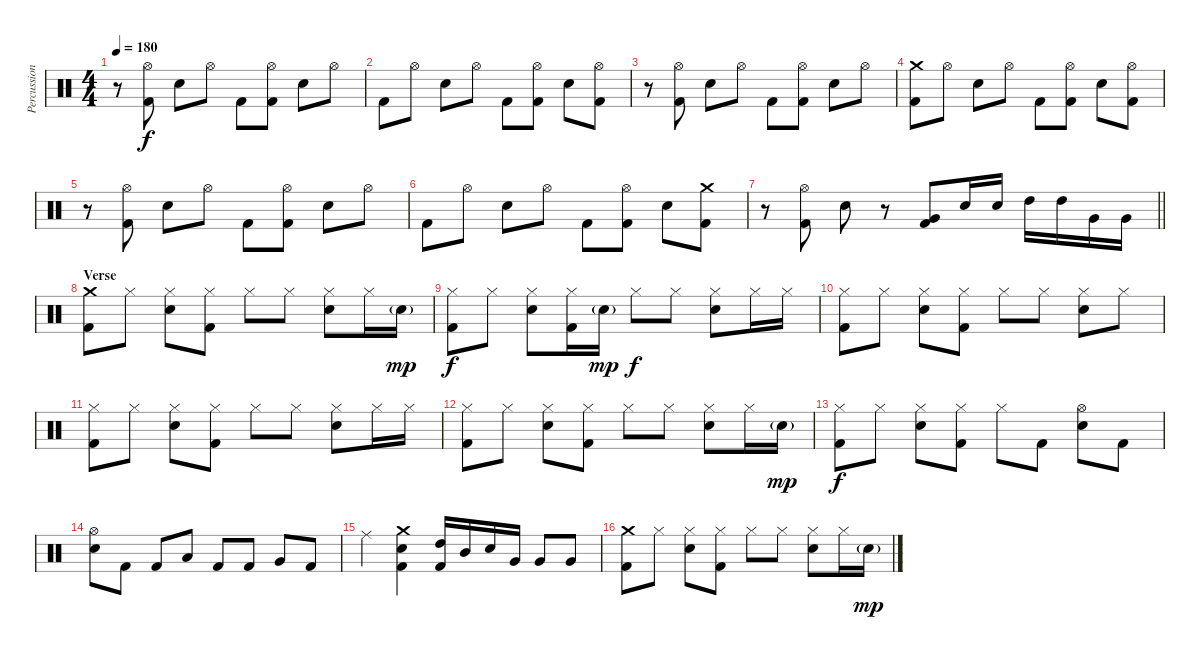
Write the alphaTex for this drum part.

\track ("Percussion" "Percussion") {instrument percussion}
\staff {score}
\articulation defaults
\ts (4 4)
\tempo 180
\clef neutral
\ks c
r.8{dy f} ("Hi-Hat (open)" "Kick (hit) 2").8 "Snare (hit) 2".8 "Hi-Hat (open)".8 "Kick (hit) 2".8 ("Hi-Hat (open)" "Kick (hit) 2").8 "Snare (hit) 2".8 "Hi-Hat (open)".8 |
"Kick (hit) 2".8 "Hi-Hat (open)".8 "Snare (hit) 2".8 "Hi-Hat (open)".8 "Kick (hit) 2".8 ("Hi-Hat (open)" "Kick (hit) 2").8 "Snare (hit) 2".8 ("Hi-Hat (open)" "Kick (hit) 2").8 |
r.8 ("Hi-Hat (open)" "Kick (hit) 2").8 "Snare (hit) 2".8 "Hi-Hat (open)".8 "Kick (hit) 2".8 ("Hi-Hat (open)" "Kick (hit) 2").8 "Snare (hit) 2".8 "Hi-Hat (open)".8 |
("Crash medium (hit)" "Kick (hit) 2").8 "Hi-Hat (open)".8 "Snare (hit) 2".8 "Hi-Hat (open)".8 "Kick (hit) 2".8 ("Hi-Hat (open)" "Kick (hit) 2").8 "Snare (hit) 2".8 ("Hi-Hat (open)" "Kick (hit) 2").8 |
r.8 ("Hi-Hat (open)" "Kick (hit) 2").8 "Snare (hit) 2".8 "Hi-Hat (open)".8 "Kick (hit) 2".8 ("Hi-Hat (open)" "Kick (hit) 2").8 "Snare (hit) 2".8 "Hi-Hat (open)".8 |
"Kick (hit) 2".8 "Hi-Hat (open)".8 "Snare (hit) 2".8 "Hi-Hat (open)".8 "Kick (hit) 2".8 ("Hi-Hat (open)" "Kick (hit) 2").8 "Snare (hit) 2".8 ("Crash medium (hit)" "Kick (hit) 2").8 |
\barLineRight lightlight
r.8 ("Hi-Hat (open)" "Kick (hit) 2").8 "Snare (hit) 2".8 r.8 ("Very Low Tom (hit)" "Kick (hit) 2").8 "Snare (hit) 2".16 "Snare (hit) 2".16 "High Tom (hit)".16 "High Tom (hit)".16 "Very Low Tom (hit)".16 "Very Low Tom (hit)".16 |
\section ("" "Verse")
("Crash medium (hit)" "Kick (hit) 2").8 "Hi-Hat (closed)".8 ("Hi-Hat (closed)" "Snare (hit) 2").8 ("Hi-Hat (closed)" "Kick (hit) 2").8 "Hi-Hat (closed)".8 "Hi-Hat (closed)".8 ("Hi-Hat (closed)" "Snare (hit) 2").8 "Hi-Hat (closed)".16 "Snare (hit) 2"{g}.16{dy mp} |
("Hi-Hat (closed)" "Kick (hit) 2").8{dy f} "Hi-Hat (closed)".8 ("Hi-Hat (closed)" "Snare (hit) 2").8 ("Hi-Hat (closed)" "Kick (hit) 2").16 "Snare (hit) 2"{g}.16{dy mp} "Hi-Hat (closed)".8{dy f} "Hi-Hat (closed)".8 ("Hi-Hat (closed)" "Snare (hit) 2").8 "Hi-Hat (closed)".16 "Hi-Hat (closed)".16 |
("Hi-Hat (closed)" "Kick (hit) 2").8 "Hi-Hat (closed)".8 ("Hi-Hat (closed)" "Snare (hit) 2").8 ("Hi-Hat (closed)" "Kick (hit) 2").8 "Hi-Hat (closed)".8 "Hi-Hat (closed)".8 ("Hi-Hat (closed)" "Snare (hit) 2").8 "Hi-Hat (closed)".8 |
("Hi-Hat (closed)" "Kick (hit) 2").8 "Hi-Hat (closed)".8 ("Hi-Hat (closed)" "Snare (hit) 2").8 ("Hi-Hat (closed)" "Kick (hit) 2").8 "Hi-Hat (closed)".8 "Hi-Hat (closed)".8 ("Hi-Hat (closed)" "Snare (hit) 2").8 "Hi-Hat (closed)".16 "Hi-Hat (closed)".16 |
("Hi-Hat (closed)" "Kick (hit) 2").8 "Hi-Hat (closed)".8 ("Hi-Hat (closed)" "Snare (hit) 2").8 ("Hi-Hat (closed)" "Kick (hit) 2").8 "Hi-Hat (closed)".8 "Hi-Hat (closed)".8 ("Hi-Hat (closed)" "Snare (hit) 2").8 "Hi-Hat (closed)".16 "Snare (hit) 2"{g}.16{dy mp} |
("Hi-Hat (closed)" "Kick (hit) 2").8{dy f} "Hi-Hat (closed)".8 ("Hi-Hat (closed)" "Snare (hit) 2").8 ("Hi-Hat (closed)" "Kick (hit) 2").8 "Hi-Hat (closed)".8 "Kick (hit) 2".8 ("Hi-Hat (open)" "Snare (hit) 2").8 "Kick (hit) 2".8 |
("Hi-Hat (open)" "Snare (hit) 2").8 "Kick (hit) 2".8 "Kick (hit) 2".8 "Low Tom (hit)".8 "Kick (hit) 2".8 "Kick (hit) 2".8 "Very Low Tom (hit)".8 "Kick (hit) 2".8 |
"Ride (middle)".4 ("Crash medium (hit)" "Snare (hit) 2" "Kick (hit) 2").4 ("High Tom (hit)" "Kick (hit) 2").16 "Mid Tom (hit)".16 "Snare (hit) 2".16 "Very Low Tom (hit)".16 "Very Low Tom (hit)".8 "Very Low Tom (hit)".8 |
("Crash medium (hit)" "Kick (hit) 2").8 "Hi-Hat (closed)".8 ("Hi-Hat (closed)" "Snare (hit) 2").8 ("Hi-Hat (closed)" "Kick (hit) 2").8 "Hi-Hat (closed)".8 "Hi-Hat (closed)".8 ("Hi-Hat (closed)" "Snare (hit) 2").8 "Hi-Hat (closed)".16 "Snare (hit) 2"{g}.16{dy mp}
